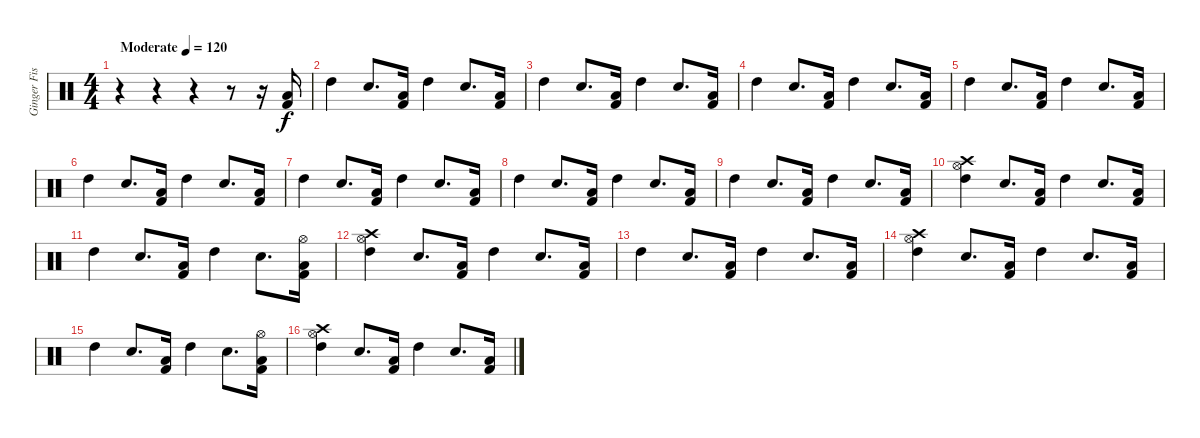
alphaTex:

\track ("Ginger Fish" "Ginger Fis") {instrument percussion}
\staff {score}
\articulation defaults
\ts (4 4)
\tempo (120 "Moderate")
\clef neutral
\ks c
r.4{dy f} r.4 r.4 r.8 r.16 ("Low Tom (hit)" "Kick (hit) 2").16 |
"High Tom (hit)".4 "Electric Snare (hit)".8{d} ("Low Tom (hit)" "Kick (hit) 2").16 "High Tom (hit)".4 "Electric Snare (hit)".8{d} ("Low Tom (hit)" "Kick (hit) 2").16 |
"High Tom (hit)".4 "Electric Snare (hit)".8{d} ("Low Tom (hit)" "Kick (hit) 2").16 "High Tom (hit)".4 "Electric Snare (hit)".8{d} ("Low Tom (hit)" "Kick (hit) 2").16 |
"High Tom (hit)".4 "Electric Snare (hit)".8{d} ("Low Tom (hit)" "Kick (hit) 2").16 "High Tom (hit)".4 "Electric Snare (hit)".8{d} ("Low Tom (hit)" "Kick (hit) 2").16 |
"High Tom (hit)".4 "Electric Snare (hit)".8{d} ("Low Tom (hit)" "Kick (hit) 2").16 "High Tom (hit)".4 "Electric Snare (hit)".8{d} ("Low Tom (hit)" "Kick (hit) 2").16 |
"High Tom (hit)".4 "Electric Snare (hit)".8{d} ("Low Tom (hit)" "Kick (hit) 2").16 "High Tom (hit)".4 "Electric Snare (hit)".8{d} ("Low Tom (hit)" "Kick (hit) 2").16 |
"High Tom (hit)".4 "Electric Snare (hit)".8{d} ("Low Tom (hit)" "Kick (hit) 2").16 "High Tom (hit)".4 "Electric Snare (hit)".8{d} ("Low Tom (hit)" "Kick (hit) 2").16 |
"High Tom (hit)".4 "Electric Snare (hit)".8{d} ("Low Tom (hit)" "Kick (hit) 2").16 "High Tom (hit)".4 "Electric Snare (hit)".8{d} ("Low Tom (hit)" "Kick (hit) 2").16 |
"High Tom (hit)".4 "Electric Snare (hit)".8{d} ("Low Tom (hit)" "Kick (hit) 2").16 "High Tom (hit)".4 "Electric Snare (hit)".8{d} ("Low Tom (hit)" "Kick (hit) 2").16 |
("Hi-Hat (open)" "Crash high (hit)" "High Tom (hit)").4 "Electric Snare (hit)".8{d} ("Low Tom (hit)" "Kick (hit) 2").16 "High Tom (hit)".4 "Electric Snare (hit)".8{d} ("Low Tom (hit)" "Kick (hit) 2").16 |
"High Tom (hit)".4 "Electric Snare (hit)".8{d} ("Low Tom (hit)" "Kick (hit) 2").16 "High Tom (hit)".4 "Electric Snare (hit)".8{d} ("Hi-Hat (open)" "Low Tom (hit)" "Kick (hit) 2").16 |
("Hi-Hat (open)" "Crash high (hit)" "High Tom (hit)").4 "Electric Snare (hit)".8{d} ("Low Tom (hit)" "Kick (hit) 2").16 "High Tom (hit)".4 "Electric Snare (hit)".8{d} ("Low Tom (hit)" "Kick (hit) 2").16 |
"High Tom (hit)".4 "Electric Snare (hit)".8{d} ("Low Tom (hit)" "Kick (hit) 2").16 "High Tom (hit)".4 "Electric Snare (hit)".8{d} ("Low Tom (hit)" "Kick (hit) 2").16 |
("Hi-Hat (open)" "Crash high (hit)" "High Tom (hit)").4 "Electric Snare (hit)".8{d} ("Low Tom (hit)" "Kick (hit) 2").16 "High Tom (hit)".4 "Electric Snare (hit)".8{d} ("Low Tom (hit)" "Kick (hit) 2").16 |
"High Tom (hit)".4 "Electric Snare (hit)".8{d} ("Low Tom (hit)" "Kick (hit) 2").16 "High Tom (hit)".4 "Electric Snare (hit)".8{d} ("Hi-Hat (open)" "Low Tom (hit)" "Kick (hit) 2").16 |
("Hi-Hat (open)" "Crash high (hit)" "High Tom (hit)").4 "Electric Snare (hit)".8{d} ("Low Tom (hit)" "Kick (hit) 2").16 "High Tom (hit)".4 "Electric Snare (hit)".8{d} ("Low Tom (hit)" "Kick (hit) 2").16
